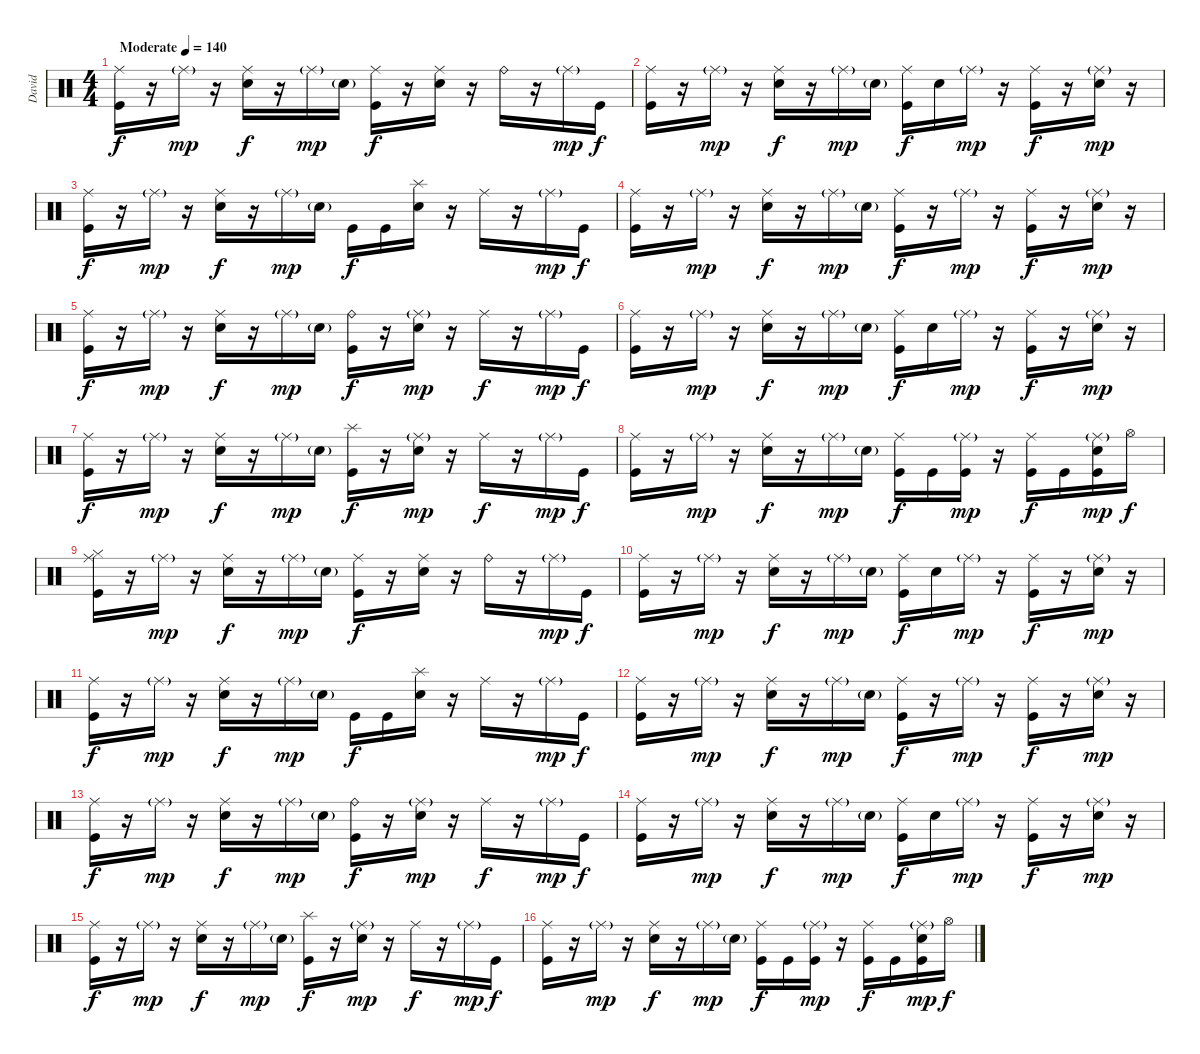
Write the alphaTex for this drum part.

\track ("David" "David") {instrument percussion}
\staff {score}
\articulation defaults
\ts (4 4)
\tempo (140 "Moderate")
\clef neutral
\ks c
("Ride (middle)" "Kick (hit)").16{dy f} r.16 "Ride (middle)"{g}.16{dy mp} r.16 ("Ride (middle)" "Electric Snare (hit)").16{dy f} r.16 "Ride (middle)"{g}.16{dy mp} "Electric Snare (hit)"{g}.16 ("Ride (middle)" "Kick (hit)").16{dy f} r.16 ("Ride (middle)" "Electric Snare (hit)").16 r.16 "Ride (bell)".16 r.16 "Ride (middle)"{g}.16{dy mp} "Kick (hit)".16{dy f} |
("Ride (middle)" "Kick (hit)").16 r.16 "Ride (middle)"{g}.16{dy mp} r.16 ("Ride (middle)" "Electric Snare (hit)").16{dy f} r.16 "Ride (middle)"{g}.16{dy mp} "Electric Snare (hit)"{g}.16 ("Ride (middle)" "Kick (hit)").16{dy f} "Electric Snare (hit)".16 "Ride (middle)"{g}.16{dy mp} r.16 ("Ride (middle)" "Kick (hit)").16{dy f} r.16 ("Ride (middle)"{g} "Electric Snare (hit)").16{dy mp} r.16 |
("Ride (middle)" "Kick (hit)").16{dy f} r.16 "Ride (middle)"{g}.16{dy mp} r.16 ("Ride (middle)" "Electric Snare (hit)").16{dy f} r.16 "Ride (middle)"{g}.16{dy mp} "Electric Snare (hit)"{g}.16 "Kick (hit)".16{dy f} "Kick (hit)".16 ("Splash (hit)" "Electric Snare (hit)").16 r.16 "Ride (middle)".16 r.16 "Ride (middle)"{g}.16{dy mp} "Kick (hit)".16{dy f} |
("Ride (middle)" "Kick (hit)").16 r.16 "Ride (middle)"{g}.16{dy mp} r.16 ("Ride (middle)" "Electric Snare (hit)").16{dy f} r.16 "Ride (middle)"{g}.16{dy mp} "Electric Snare (hit)"{g}.16 ("Ride (middle)" "Kick (hit)").16{dy f} r.16 "Ride (middle)"{g}.16{dy mp} r.16 ("Ride (middle)" "Kick (hit)").16{dy f} r.16 ("Ride (middle)"{g} "Electric Snare (hit)").16{dy mp} r.16 |
("Ride (middle)" "Kick (hit)").16{dy f} r.16 "Ride (middle)"{g}.16{dy mp} r.16 ("Ride (middle)" "Electric Snare (hit)").16{dy f} r.16 "Ride (middle)"{g}.16{dy mp} "Electric Snare (hit)"{g}.16 ("Ride (bell)" "Kick (hit)").16{dy f} r.16 ("Ride (middle)"{g} "Electric Snare (hit)").16{dy mp} r.16 "Ride (middle)".16{dy f} r.16 "Ride (middle)"{g}.16{dy mp} "Kick (hit)".16{dy f} |
("Ride (middle)" "Kick (hit)").16 r.16 "Ride (middle)"{g}.16{dy mp} r.16 ("Ride (middle)" "Electric Snare (hit)").16{dy f} r.16 "Ride (middle)"{g}.16{dy mp} "Electric Snare (hit)"{g}.16 ("Ride (middle)" "Kick (hit)").16{dy f} "Electric Snare (hit)".16 "Ride (middle)"{g}.16{dy mp} r.16 ("Ride (middle)" "Kick (hit)").16{dy f} r.16 ("Ride (middle)"{g} "Electric Snare (hit)").16{dy mp} r.16 |
("Ride (middle)" "Kick (hit)").16{dy f} r.16 "Ride (middle)"{g}.16{dy mp} r.16 ("Ride (middle)" "Electric Snare (hit)").16{dy f} r.16 "Ride (middle)"{g}.16{dy mp} "Electric Snare (hit)"{g}.16 ("Splash (hit)" "Kick (hit)").16{dy f} r.16 ("Ride (middle)"{g} "Electric Snare (hit)").16{dy mp} r.16 "Ride (middle)".16{dy f} r.16 "Ride (middle)"{g}.16{dy mp} "Kick (hit)".16{dy f} |
("Ride (middle)" "Kick (hit)").16 r.16 "Ride (middle)"{g}.16{dy mp} r.16 ("Ride (middle)" "Electric Snare (hit)").16{dy f} r.16 "Ride (middle)"{g}.16{dy mp} "Electric Snare (hit)"{g}.16 ("Ride (middle)" "Kick (hit)").16{dy f} "Kick (hit)".16 ("Ride (middle)"{g} "Kick (hit)").16{dy mp} r.16 ("Ride (middle)" "Kick (hit)").16{dy f} "Kick (hit)".16 ("Ride (middle)"{g} "Electric Snare (hit)" "Kick (hit)").16{dy mp} "Hi-Hat (open)".16{dy f} |
("Ride (middle)" "Hi-Hat (closed)" "Kick (hit)").16 r.16 "Ride (middle)"{g}.16{dy mp} r.16 ("Ride (middle)" "Electric Snare (hit)").16{dy f} r.16 "Ride (middle)"{g}.16{dy mp} "Electric Snare (hit)"{g}.16 ("Ride (middle)" "Kick (hit)").16{dy f} r.16 ("Ride (middle)" "Electric Snare (hit)").16 r.16 "Ride (bell)".16 r.16 "Ride (middle)"{g}.16{dy mp} "Kick (hit)".16{dy f} |
("Ride (middle)" "Kick (hit)").16 r.16 "Ride (middle)"{g}.16{dy mp} r.16 ("Ride (middle)" "Electric Snare (hit)").16{dy f} r.16 "Ride (middle)"{g}.16{dy mp} "Electric Snare (hit)"{g}.16 ("Ride (middle)" "Kick (hit)").16{dy f} "Electric Snare (hit)".16 "Ride (middle)"{g}.16{dy mp} r.16 ("Ride (middle)" "Kick (hit)").16{dy f} r.16 ("Ride (middle)"{g} "Electric Snare (hit)").16{dy mp} r.16 |
("Ride (middle)" "Kick (hit)").16{dy f} r.16 "Ride (middle)"{g}.16{dy mp} r.16 ("Ride (middle)" "Electric Snare (hit)").16{dy f} r.16 "Ride (middle)"{g}.16{dy mp} "Electric Snare (hit)"{g}.16 "Kick (hit)".16{dy f} "Kick (hit)".16 ("Splash (hit)" "Electric Snare (hit)").16 r.16 "Ride (middle)".16 r.16 "Ride (middle)"{g}.16{dy mp} "Kick (hit)".16{dy f} |
("Ride (middle)" "Kick (hit)").16 r.16 "Ride (middle)"{g}.16{dy mp} r.16 ("Ride (middle)" "Electric Snare (hit)").16{dy f} r.16 "Ride (middle)"{g}.16{dy mp} "Electric Snare (hit)"{g}.16 ("Ride (middle)" "Kick (hit)").16{dy f} r.16 "Ride (middle)"{g}.16{dy mp} r.16 ("Ride (middle)" "Kick (hit)").16{dy f} r.16 ("Ride (middle)"{g} "Electric Snare (hit)").16{dy mp} r.16 |
("Ride (middle)" "Kick (hit)").16{dy f} r.16 "Ride (middle)"{g}.16{dy mp} r.16 ("Ride (middle)" "Electric Snare (hit)").16{dy f} r.16 "Ride (middle)"{g}.16{dy mp} "Electric Snare (hit)"{g}.16 ("Ride (bell)" "Kick (hit)").16{dy f} r.16 ("Ride (middle)"{g} "Electric Snare (hit)").16{dy mp} r.16 "Ride (middle)".16{dy f} r.16 "Ride (middle)"{g}.16{dy mp} "Kick (hit)".16{dy f} |
("Ride (middle)" "Kick (hit)").16 r.16 "Ride (middle)"{g}.16{dy mp} r.16 ("Ride (middle)" "Electric Snare (hit)").16{dy f} r.16 "Ride (middle)"{g}.16{dy mp} "Electric Snare (hit)"{g}.16 ("Ride (middle)" "Kick (hit)").16{dy f} "Electric Snare (hit)".16 "Ride (middle)"{g}.16{dy mp} r.16 ("Ride (middle)" "Kick (hit)").16{dy f} r.16 ("Ride (middle)"{g} "Electric Snare (hit)").16{dy mp} r.16 |
("Ride (middle)" "Kick (hit)").16{dy f} r.16 "Ride (middle)"{g}.16{dy mp} r.16 ("Ride (middle)" "Electric Snare (hit)").16{dy f} r.16 "Ride (middle)"{g}.16{dy mp} "Electric Snare (hit)"{g}.16 ("Splash (hit)" "Kick (hit)").16{dy f} r.16 ("Ride (middle)"{g} "Electric Snare (hit)").16{dy mp} r.16 "Ride (middle)".16{dy f} r.16 "Ride (middle)"{g}.16{dy mp} "Kick (hit)".16{dy f} |
("Ride (middle)" "Kick (hit)").16 r.16 "Ride (middle)"{g}.16{dy mp} r.16 ("Ride (middle)" "Electric Snare (hit)").16{dy f} r.16 "Ride (middle)"{g}.16{dy mp} "Electric Snare (hit)"{g}.16 ("Ride (middle)" "Kick (hit)").16{dy f} "Kick (hit)".16 ("Ride (middle)"{g} "Kick (hit)").16{dy mp} r.16 ("Ride (middle)" "Kick (hit)").16{dy f} "Kick (hit)".16 ("Ride (middle)"{g} "Electric Snare (hit)" "Kick (hit)").16{dy mp} "Hi-Hat (open)".16{dy f}
